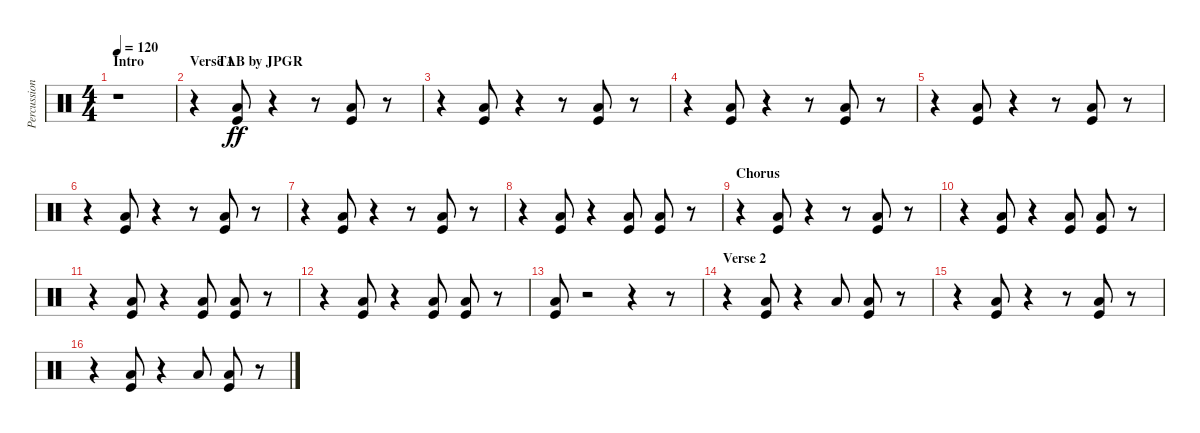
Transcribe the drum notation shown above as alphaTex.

\track ("Percussion" "Percussion") {instrument percussion}
\staff {score}
\articulation defaults
\ts (4 4)
\section ("" "Intro                     TAB by JPGR")
\tempo 120
\clef neutral
\ks c
r.1{dy ff} |
\section ("" "Verse 1")
r.4 ("Low Floor Tom (hit)" "Kick (hit)").8 r.4 r.8 ("Low Floor Tom (hit)" "Kick (hit)").8 r.8 |
r.4 ("Low Floor Tom (hit)" "Kick (hit)").8 r.4 r.8 ("Low Floor Tom (hit)" "Kick (hit)").8 r.8 |
r.4 ("Low Floor Tom (hit)" "Kick (hit)").8 r.4 r.8 ("Low Floor Tom (hit)" "Kick (hit)").8 r.8 |
r.4 ("Low Floor Tom (hit)" "Kick (hit)").8 r.4 r.8 ("Low Floor Tom (hit)" "Kick (hit)").8 r.8 |
r.4 ("Low Floor Tom (hit)" "Kick (hit)").8 r.4 r.8 ("Low Floor Tom (hit)" "Kick (hit)").8 r.8 |
r.4 ("Low Floor Tom (hit)" "Kick (hit)").8 r.4 r.8 ("Low Floor Tom (hit)" "Kick (hit)").8 r.8 |
r.4 ("Low Floor Tom (hit)" "Kick (hit)").8 r.4 ("Low Tom (hit)" "Kick (hit)").8 ("Low Floor Tom (hit)" "Kick (hit)").8 r.8 |
\section ("" "Chorus")
r.4 ("Low Floor Tom (hit)" "Kick (hit)").8 r.4 r.8 ("Low Floor Tom (hit)" "Kick (hit)").8 r.8 |
r.4 ("Low Floor Tom (hit)" "Kick (hit)").8 r.4 ("Low Tom (hit)" "Kick (hit)").8 ("Low Floor Tom (hit)" "Kick (hit)").8 r.8 |
r.4 ("Low Floor Tom (hit)" "Kick (hit)").8 r.4 ("Low Tom (hit)" "Kick (hit)").8 ("Low Floor Tom (hit)" "Kick (hit)").8 r.8 |
r.4 ("Low Floor Tom (hit)" "Kick (hit)").8 r.4 ("Low Tom (hit)" "Kick (hit)").8 ("Low Floor Tom (hit)" "Kick (hit)").8 r.8 |
("Low Floor Tom (hit)" "Kick (hit)").8 r.2 r.4 r.8 |
\section ("" "Verse 2")
r.4 ("Low Floor Tom (hit)" "Kick (hit)").8 r.4 "Low Tom (hit)".8 ("Low Floor Tom (hit)" "Kick (hit)").8 r.8 |
r.4 ("Low Floor Tom (hit)" "Kick (hit)").8 r.4 r.8 ("Low Floor Tom (hit)" "Kick (hit)").8 r.8 |
r.4 ("Low Floor Tom (hit)" "Kick (hit)").8 r.4 "Low Tom (hit)".8 ("Low Floor Tom (hit)" "Kick (hit)").8 r.8
